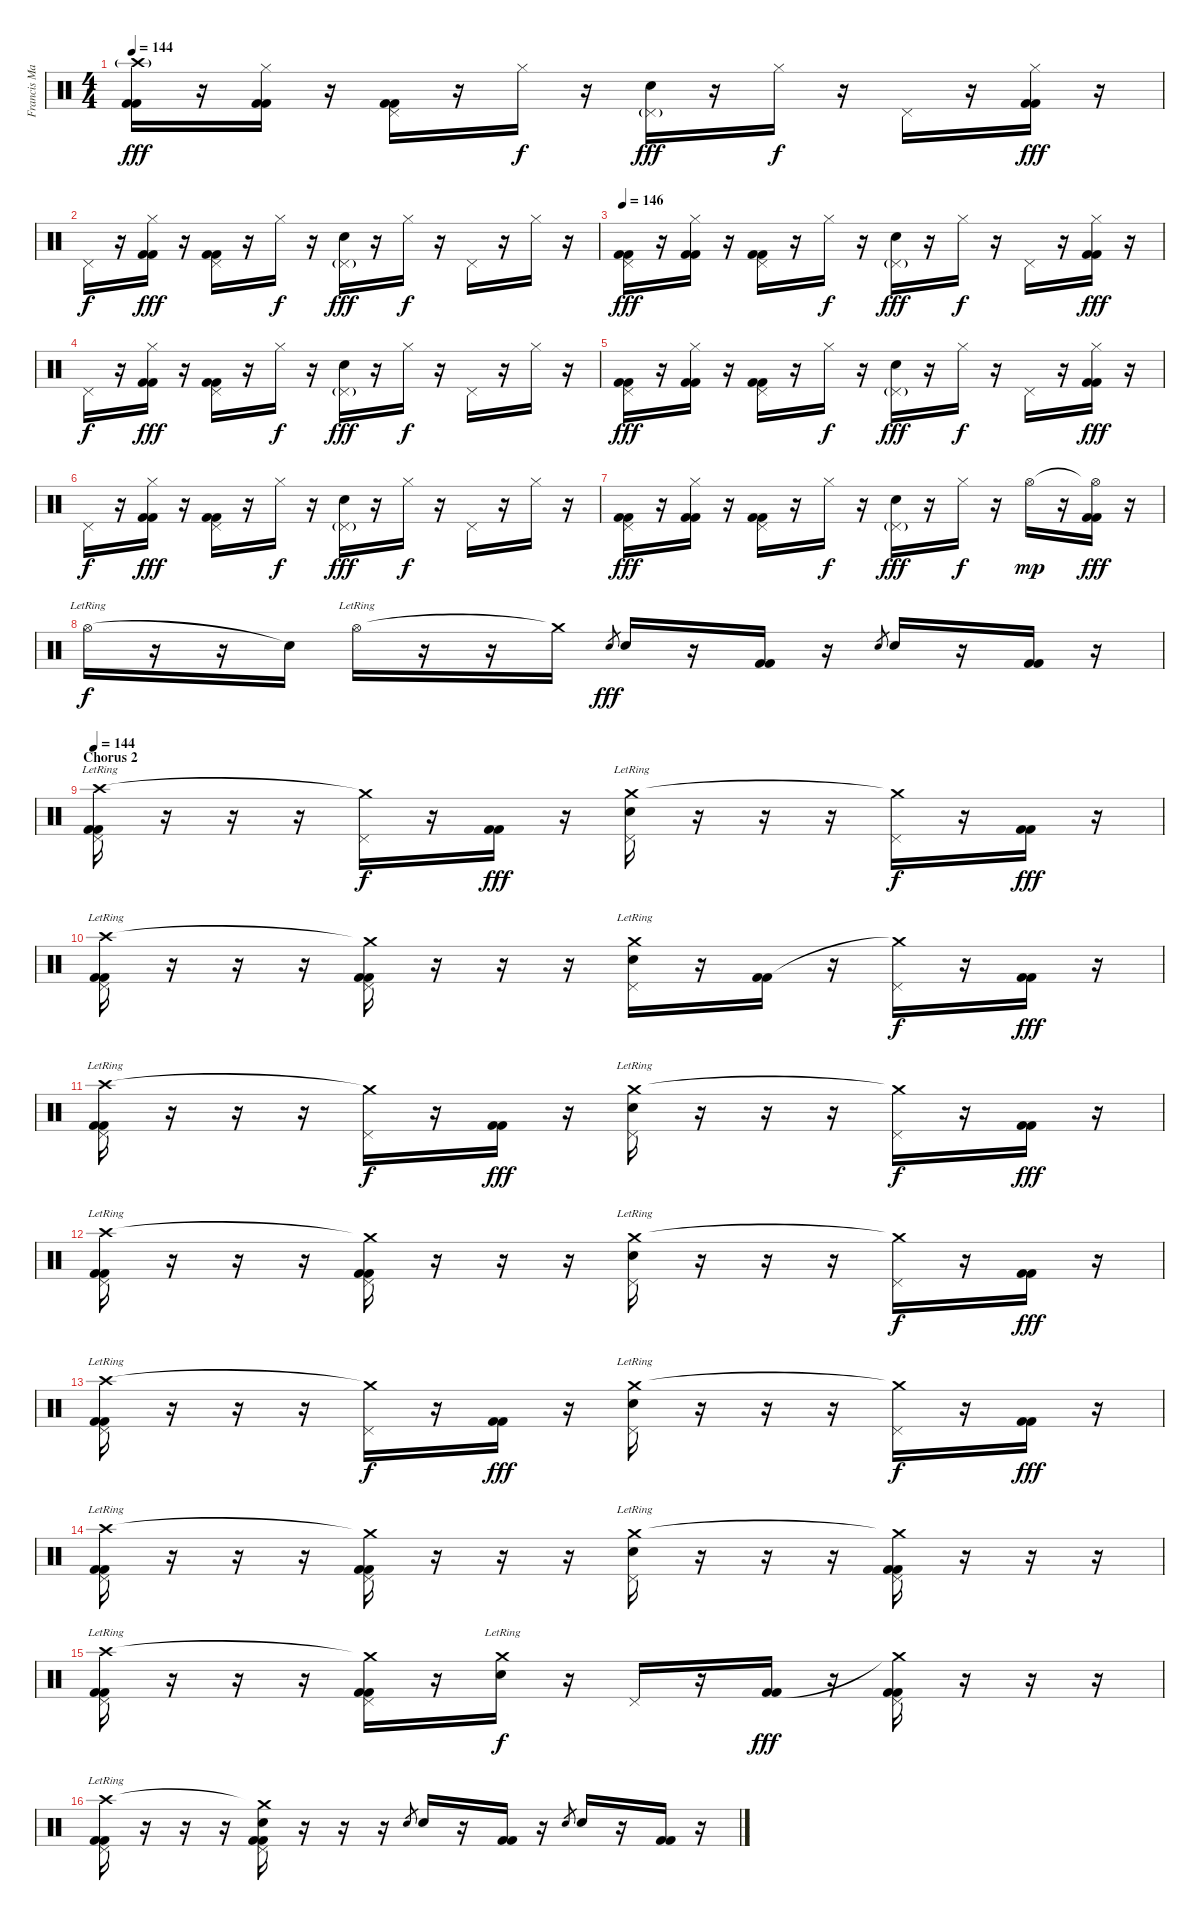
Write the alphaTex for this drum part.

\track ("Francis Mark" "Francis Ma") {instrument percussion}
\staff {score}
\articulation defaults
\ts (4 4)
\tempo 144
\clef neutral
\ks c
("Crash high (hit)"{g} "Kick (hit) 2" "Kick (hit) 2").16{dy fff} r.16 ("Hi-Hat (closed)" "Kick (hit) 2" "Kick (hit) 2").16 r.16 ("Pedal Hi-Hat (hit)" "Kick (hit) 2" "Kick (hit) 2").16 r.16 "Hi-Hat (closed)".16{dy f} r.16 ("Pedal Hi-Hat (hit)"{g} "Electric Snare (hit)").16{dy fff} r.16 "Hi-Hat (closed)".16{dy f} r.16 "Pedal Hi-Hat (hit)".16 r.16 ("Hi-Hat (closed)" "Kick (hit) 2" "Kick (hit) 2").16{dy fff} r.16 |
"Pedal Hi-Hat (hit)".16{dy f} r.16 ("Hi-Hat (closed)" "Kick (hit) 2" "Kick (hit) 2").16{dy fff} r.16 ("Pedal Hi-Hat (hit)" "Kick (hit) 2" "Kick (hit) 2").16 r.16 "Hi-Hat (closed)".16{dy f} r.16 ("Pedal Hi-Hat (hit)"{g} "Electric Snare (hit)").16{dy fff} r.16 "Hi-Hat (closed)".16{dy f} r.16 "Pedal Hi-Hat (hit)".16 r.16 "Hi-Hat (closed)".16 r.16 |
\tempo 146
("Pedal Hi-Hat (hit)" "Kick (hit) 2" "Kick (hit) 2").16{dy fff} r.16 ("Hi-Hat (closed)" "Kick (hit) 2" "Kick (hit) 2").16 r.16 ("Pedal Hi-Hat (hit)" "Kick (hit) 2" "Kick (hit) 2").16 r.16 "Hi-Hat (closed)".16{dy f} r.16 ("Pedal Hi-Hat (hit)"{g} "Electric Snare (hit)").16{dy fff} r.16 "Hi-Hat (closed)".16{dy f} r.16 "Pedal Hi-Hat (hit)".16 r.16 ("Hi-Hat (closed)" "Kick (hit) 2" "Kick (hit) 2").16{dy fff} r.16 |
"Pedal Hi-Hat (hit)".16{dy f} r.16 ("Hi-Hat (closed)" "Kick (hit) 2" "Kick (hit) 2").16{dy fff} r.16 ("Pedal Hi-Hat (hit)" "Kick (hit) 2" "Kick (hit) 2").16 r.16 "Hi-Hat (closed)".16{dy f} r.16 ("Pedal Hi-Hat (hit)"{g} "Electric Snare (hit)").16{dy fff} r.16 "Hi-Hat (closed)".16{dy f} r.16 "Pedal Hi-Hat (hit)".16 r.16 "Hi-Hat (closed)".16 r.16 |
("Pedal Hi-Hat (hit)" "Kick (hit) 2" "Kick (hit) 2").16{dy fff} r.16 ("Hi-Hat (closed)" "Kick (hit) 2" "Kick (hit) 2").16 r.16 ("Pedal Hi-Hat (hit)" "Kick (hit) 2" "Kick (hit) 2").16 r.16 "Hi-Hat (closed)".16{dy f} r.16 ("Pedal Hi-Hat (hit)"{g} "Electric Snare (hit)").16{dy fff} r.16 "Hi-Hat (closed)".16{dy f} r.16 "Pedal Hi-Hat (hit)".16 r.16 ("Hi-Hat (closed)" "Kick (hit) 2" "Kick (hit) 2").16{dy fff} r.16 |
"Pedal Hi-Hat (hit)".16{dy f} r.16 ("Hi-Hat (closed)" "Kick (hit) 2" "Kick (hit) 2").16{dy fff} r.16 ("Pedal Hi-Hat (hit)" "Kick (hit) 2" "Kick (hit) 2").16 r.16 "Hi-Hat (closed)".16{dy f} r.16 ("Pedal Hi-Hat (hit)"{g} "Electric Snare (hit)").16{dy fff} r.16 "Hi-Hat (closed)".16{dy f} r.16 "Pedal Hi-Hat (hit)".16 r.16 "Hi-Hat (closed)".16 r.16 |
("Pedal Hi-Hat (hit)" "Kick (hit) 2" "Kick (hit) 2").16{dy fff} r.16 ("Hi-Hat (closed)" "Kick (hit) 2" "Kick (hit) 2").16 r.16 ("Pedal Hi-Hat (hit)" "Kick (hit) 2" "Kick (hit) 2").16 r.16 "Hi-Hat (closed)".16{dy f} r.16 ("Pedal Hi-Hat (hit)"{g} "Electric Snare (hit)").16{dy fff} r.16 "Hi-Hat (closed)".16{dy f} r.16 "Hi-Hat (open)".16{dy mp} r.16 ("Hi-Hat (open)"{t} "Kick (hit) 2" "Kick (hit) 2").16{dy fff} r.16 |
"Hi-Hat (open)"{lr}.16{dy f} r.16 r.16 "Snare (hit)"{t}.16 "Hi-Hat (open)"{lr}.16 r.16 r.16 "Crash medium (hit)"{t}.16 "Electric Snare (hit)".8{gr dy fff} "Electric Snare (hit)".16 r.16 ("Kick (hit) 2" "Kick (hit) 2").16 r.16 "Electric Snare (hit)"{sl}.8{gr} "Electric Snare (hit)".16 r.16 ("Kick (hit) 2" "Kick (hit) 2").16 r.16 |
\section ("" "Chorus 2")
\tempo 144
("Crash high (hit)"{lr} "Pedal Hi-Hat (hit)" "Kick (hit) 2" "Kick (hit) 2").16 r.16 r.16 r.16 ("Crash medium (hit)"{t} "Pedal Hi-Hat (hit)").16{dy f} r.16 ("Kick (hit) 2" "Kick (hit) 2").16{dy fff} r.16 ("Crash medium (hit)"{lr} "Pedal Hi-Hat (hit)" "Electric Snare (hit)").16 r.16 r.16 r.16 ("Crash medium (hit)"{t} "Pedal Hi-Hat (hit)").16{dy f} r.16 ("Kick (hit) 2" "Kick (hit) 2").16{dy fff} r.16 |
("Crash high (hit)"{lr} "Pedal Hi-Hat (hit)" "Kick (hit) 2" "Kick (hit) 2").16 r.16 r.16 r.16 ("Crash medium (hit)"{t} "Pedal Hi-Hat (hit)" "Kick (hit) 2" "Kick (hit) 2").16 r.16 r.16 r.16 ("Crash medium (hit)"{lr} "Pedal Hi-Hat (hit)" "Electric Snare (hit)").16 r.16 ("Kick (hit) 2" "Kick (hit) 2").16 r.16 ("Crash medium (hit)"{t} "Pedal Hi-Hat (hit)").16{dy f} r.16 ("Kick (hit) 2" "Kick (hit) 2").16{dy fff} r.16 |
("Crash high (hit)"{lr} "Pedal Hi-Hat (hit)" "Kick (hit) 2" "Kick (hit) 2").16 r.16 r.16 r.16 ("Crash medium (hit)"{t} "Pedal Hi-Hat (hit)").16{dy f} r.16 ("Kick (hit) 2" "Kick (hit) 2").16{dy fff} r.16 ("Crash medium (hit)"{lr} "Pedal Hi-Hat (hit)" "Electric Snare (hit)").16 r.16 r.16 r.16 ("Crash medium (hit)"{t} "Pedal Hi-Hat (hit)").16{dy f} r.16 ("Kick (hit) 2" "Kick (hit) 2").16{dy fff} r.16 |
("Crash high (hit)"{lr} "Pedal Hi-Hat (hit)" "Kick (hit) 2" "Kick (hit) 2").16 r.16 r.16 r.16 ("Crash medium (hit)"{t} "Pedal Hi-Hat (hit)" "Kick (hit) 2" "Kick (hit) 2").16 r.16 r.16 r.16 ("Crash medium (hit)"{lr} "Pedal Hi-Hat (hit)" "Electric Snare (hit)").16 r.16 r.16 r.16 ("Crash medium (hit)"{t} "Pedal Hi-Hat (hit)").16{dy f} r.16 ("Kick (hit) 2" "Kick (hit) 2").16{dy fff} r.16 |
("Crash high (hit)"{lr} "Pedal Hi-Hat (hit)" "Kick (hit) 2" "Kick (hit) 2").16 r.16 r.16 r.16 ("Crash medium (hit)"{t} "Pedal Hi-Hat (hit)").16{dy f} r.16 ("Kick (hit) 2" "Kick (hit) 2").16{dy fff} r.16 ("Crash medium (hit)"{lr} "Pedal Hi-Hat (hit)" "Electric Snare (hit)").16 r.16 r.16 r.16 ("Crash medium (hit)"{t} "Pedal Hi-Hat (hit)").16{dy f} r.16 ("Kick (hit) 2" "Kick (hit) 2").16{dy fff} r.16 |
("Crash high (hit)"{lr} "Pedal Hi-Hat (hit)" "Kick (hit) 2" "Kick (hit) 2").16 r.16 r.16 r.16 ("Crash medium (hit)"{t} "Pedal Hi-Hat (hit)" "Kick (hit) 2" "Kick (hit) 2").16 r.16 r.16 r.16 ("Crash medium (hit)"{lr} "Pedal Hi-Hat (hit)" "Electric Snare (hit)").16 r.16 r.16 r.16 ("Crash medium (hit)"{t} "Pedal Hi-Hat (hit)" "Kick (hit) 2" "Kick (hit) 2").16 r.16 r.16 r.16 |
("Crash high (hit)"{lr} "Pedal Hi-Hat (hit)" "Kick (hit) 2" "Kick (hit) 2").16 r.16 r.16 r.16 ("Crash medium (hit)"{t} "Pedal Hi-Hat (hit)" "Kick (hit) 2" "Kick (hit) 2").16 r.16 ("Crash medium (hit)"{lr} "Electric Snare (hit)").16{dy f} r.16 "Pedal Hi-Hat (hit)".16 r.16 ("Kick (hit) 2" "Kick (hit) 2").16{dy fff} r.16 ("Crash medium (hit)"{t} "Pedal Hi-Hat (hit)" "Kick (hit) 2" "Kick (hit) 2").16 r.16 r.16 r.16 |
("Crash high (hit)"{lr} "Pedal Hi-Hat (hit)" "Kick (hit) 2" "Kick (hit) 2").16 r.16 r.16 r.16 ("Crash medium (hit)"{t} "Pedal Hi-Hat (hit)" "Electric Snare (hit)" "Kick (hit) 2" "Kick (hit) 2").16 r.16 r.16 r.16 "Electric Snare (hit)".8{gr} "Electric Snare (hit)".16 r.16 ("Kick (hit) 2" "Kick (hit) 2").16 r.16 "Electric Snare (hit)".8{gr} "Electric Snare (hit)".16 r.16 ("Kick (hit) 2" "Kick (hit) 2").16 r.16
